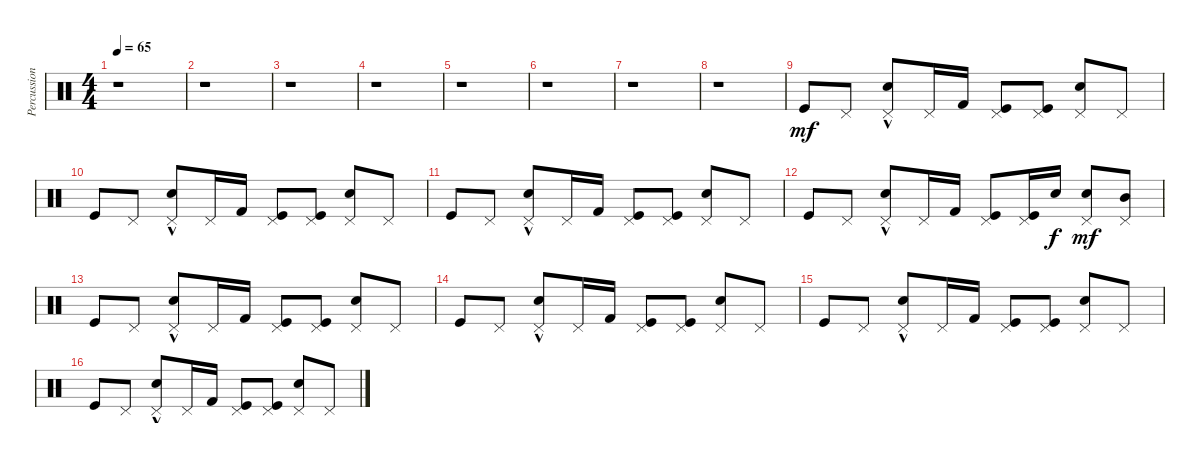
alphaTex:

\track ("Percussion" "Percussion") {instrument percussion}
\staff {score}
\articulation defaults
\ts (4 4)
\tempo 65
\clef neutral
\ks c
r.1{dy mf} |
r.1 |
r.1 |
r.1 |
r.1 |
r.1 |
r.1 |
r.1 |
"Kick (hit)".8 "Pedal Hi-Hat (hit)".8 ("Pedal Hi-Hat (hit)" "Hand Clap (hit)"{hac}).8 "Pedal Hi-Hat (hit)".16 "Kick (hit) 2".16 ("Pedal Hi-Hat (hit)" "Kick (hit)").8 ("Pedal Hi-Hat (hit)" "Kick (hit)").8 ("Pedal Hi-Hat (hit)" "Hand Clap (hit)").8 "Pedal Hi-Hat (hit)".8 |
"Kick (hit)".8 "Pedal Hi-Hat (hit)".8 ("Pedal Hi-Hat (hit)" "Hand Clap (hit)"{hac}).8 "Pedal Hi-Hat (hit)".16 "Kick (hit) 2".16 ("Pedal Hi-Hat (hit)" "Kick (hit)").8 ("Pedal Hi-Hat (hit)" "Kick (hit)").8 ("Pedal Hi-Hat (hit)" "Hand Clap (hit)").8 "Pedal Hi-Hat (hit)".8 |
"Kick (hit)".8 "Pedal Hi-Hat (hit)".8 ("Pedal Hi-Hat (hit)" "Hand Clap (hit)"{hac}).8 "Pedal Hi-Hat (hit)".16 "Kick (hit) 2".16 ("Pedal Hi-Hat (hit)" "Kick (hit)").8 ("Pedal Hi-Hat (hit)" "Kick (hit)").8 ("Pedal Hi-Hat (hit)" "Hand Clap (hit)").8 "Pedal Hi-Hat (hit)".8 |
"Kick (hit)".8 "Pedal Hi-Hat (hit)".8 ("Pedal Hi-Hat (hit)" "Hand Clap (hit)"{hac}).8 "Pedal Hi-Hat (hit)".16 "Kick (hit) 2".16 ("Pedal Hi-Hat (hit)" "Kick (hit)").8 ("Pedal Hi-Hat (hit)" "Kick (hit)").16 "Electric Snare (hit)".16{dy f} ("Pedal Hi-Hat (hit)" "Electric Snare (hit)").8{dy mf} ("Pedal Hi-Hat (hit)" "Mid Tom (hit)").8 |
"Kick (hit)".8 "Pedal Hi-Hat (hit)".8 ("Pedal Hi-Hat (hit)" "Hand Clap (hit)"{hac}).8 "Pedal Hi-Hat (hit)".16 "Kick (hit) 2".16 ("Pedal Hi-Hat (hit)" "Kick (hit)").8 ("Pedal Hi-Hat (hit)" "Kick (hit)").8 ("Pedal Hi-Hat (hit)" "Hand Clap (hit)").8 "Pedal Hi-Hat (hit)".8 |
"Kick (hit)".8 "Pedal Hi-Hat (hit)".8 ("Pedal Hi-Hat (hit)" "Hand Clap (hit)"{hac}).8 "Pedal Hi-Hat (hit)".16 "Kick (hit) 2".16 ("Pedal Hi-Hat (hit)" "Kick (hit)").8 ("Pedal Hi-Hat (hit)" "Kick (hit)").8 ("Pedal Hi-Hat (hit)" "Hand Clap (hit)").8 "Pedal Hi-Hat (hit)".8 |
"Kick (hit)".8 "Pedal Hi-Hat (hit)".8 ("Pedal Hi-Hat (hit)" "Hand Clap (hit)"{hac}).8 "Pedal Hi-Hat (hit)".16 "Kick (hit) 2".16 ("Pedal Hi-Hat (hit)" "Kick (hit)").8 ("Pedal Hi-Hat (hit)" "Kick (hit)").8 ("Pedal Hi-Hat (hit)" "Hand Clap (hit)").8 "Pedal Hi-Hat (hit)".8 |
"Kick (hit)".8 "Pedal Hi-Hat (hit)".8 ("Pedal Hi-Hat (hit)" "Hand Clap (hit)"{hac}).8 "Pedal Hi-Hat (hit)".16 "Kick (hit) 2".16 ("Pedal Hi-Hat (hit)" "Kick (hit)").8 ("Pedal Hi-Hat (hit)" "Kick (hit)").8 ("Pedal Hi-Hat (hit)" "Hand Clap (hit)").8 "Pedal Hi-Hat (hit)".8
